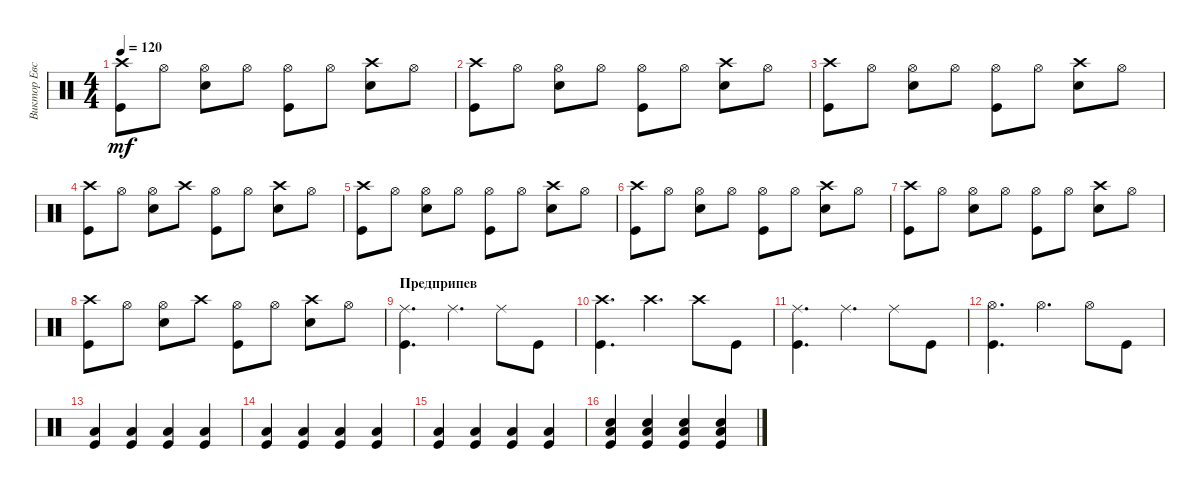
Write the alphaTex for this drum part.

\track ("Виктор Евстратов" "Виктор Евс") {instrument percussion}
\staff {score}
\articulation defaults
\ts (4 4)
\tempo 120
\clef neutral
\ks c
("Kick (hit)" "Crash high (hit)").8{dy mf} "Hi-Hat (open)".8 ("Snare (hit) 2" "Hi-Hat (open)").8 "Hi-Hat (open)".8 ("Kick (hit)" "Hi-Hat (open)").8 "Hi-Hat (open)".8 ("Snare (hit) 2" "Crash high (hit)").8 "Hi-Hat (open)".8 |
("Kick (hit)" "Crash high (hit)").8 "Hi-Hat (open)".8 ("Snare (hit) 2" "Hi-Hat (open)").8 "Hi-Hat (open)".8 ("Kick (hit)" "Hi-Hat (open)").8 "Hi-Hat (open)".8 ("Snare (hit) 2" "Crash high (hit)").8 "Hi-Hat (open)".8 |
("Kick (hit)" "Crash high (hit)").8 "Hi-Hat (open)".8 ("Snare (hit) 2" "Hi-Hat (open)").8 "Hi-Hat (open)".8 ("Kick (hit)" "Hi-Hat (open)").8 "Hi-Hat (open)".8 ("Snare (hit) 2" "Crash high (hit)").8 "Hi-Hat (open)".8 |
("Kick (hit)" "Crash high (hit)").8 "Hi-Hat (open)".8 ("Snare (hit) 2" "Hi-Hat (open)").8 "Crash high (hit)".8 ("Kick (hit)" "Hi-Hat (open)").8 "Hi-Hat (open)".8 ("Snare (hit) 2" "Crash high (hit)").8 "Hi-Hat (open)".8 |
("Kick (hit)" "Crash high (hit)").8 "Hi-Hat (open)".8 ("Snare (hit) 2" "Hi-Hat (open)").8 "Hi-Hat (open)".8 ("Kick (hit)" "Hi-Hat (open)").8 "Hi-Hat (open)".8 ("Snare (hit) 2" "Crash high (hit)").8 "Hi-Hat (open)".8 |
("Kick (hit)" "Crash high (hit)").8 "Hi-Hat (open)".8 ("Snare (hit) 2" "Hi-Hat (open)").8 "Hi-Hat (open)".8 ("Kick (hit)" "Hi-Hat (open)").8 "Hi-Hat (open)".8 ("Snare (hit) 2" "Crash high (hit)").8 "Hi-Hat (open)".8 |
("Kick (hit)" "Crash high (hit)").8 "Hi-Hat (open)".8 ("Snare (hit) 2" "Hi-Hat (open)").8 "Hi-Hat (open)".8 ("Kick (hit)" "Hi-Hat (open)").8 "Hi-Hat (open)".8 ("Snare (hit) 2" "Crash high (hit)").8 "Hi-Hat (open)".8 |
("Kick (hit)" "Crash high (hit)").8 "Hi-Hat (open)".8 ("Snare (hit) 2" "Hi-Hat (open)").8 "Crash high (hit)".8 ("Kick (hit)" "Hi-Hat (open)").8 "Hi-Hat (open)".8 ("Snare (hit) 2" "Crash high (hit)").8 "Hi-Hat (open)".8 |
\section ("" "Предприпев")
("Ride (middle)" "Kick (hit)").4{d} "Ride (middle)".4{d} "Ride (middle)".8 "Kick (hit)".8 |
("Kick (hit)" "Crash high (hit)").4{d} "Crash high (hit)".4{d} "Crash high (hit)".8 "Kick (hit)".8 |
("Ride (middle)" "Kick (hit)").4{d} "Ride (middle)".4{d} "Ride (middle)".8 "Kick (hit)".8 |
("Kick (hit)" "Hi-Hat (open)").4{d} "Hi-Hat (open)".4{d} "Hi-Hat (open)".8 "Kick (hit)".8 |
("Kick (hit)" "Low Floor Tom (hit)").4 ("Kick (hit)" "Low Floor Tom (hit)").4 ("Kick (hit)" "Low Floor Tom (hit)").4 ("Kick (hit)" "Low Floor Tom (hit)").4 |
("Kick (hit)" "Low Floor Tom (hit)").4 ("Kick (hit)" "Low Floor Tom (hit)").4 ("Kick (hit)" "Low Floor Tom (hit)").4 ("Kick (hit)" "Low Floor Tom (hit)").4 |
("Kick (hit)" "Low Floor Tom (hit)").4 ("Kick (hit)" "Low Floor Tom (hit)").4 ("Kick (hit)" "Low Floor Tom (hit)").4 ("Kick (hit)" "Low Floor Tom (hit)").4 |
("Kick (hit)" "Low Floor Tom (hit)" "Snare (hit) 2").4 ("Kick (hit)" "Low Floor Tom (hit)" "Snare (hit) 2").4 ("Kick (hit)" "Low Floor Tom (hit)" "Snare (hit) 2").4 ("Kick (hit)" "Low Floor Tom (hit)" "Snare (hit) 2").4
